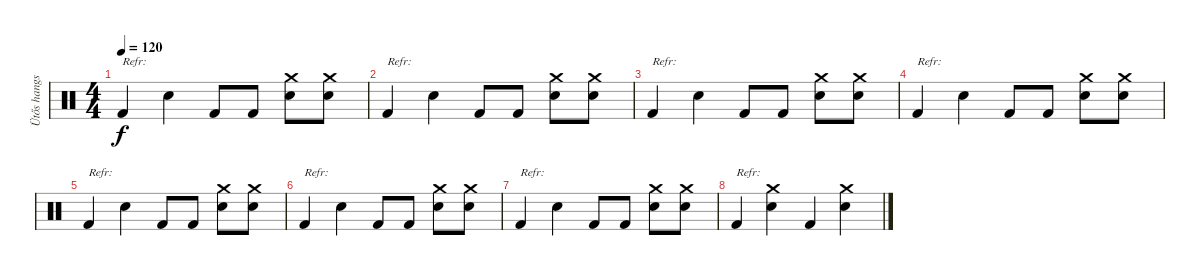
\track ("Ütős hangszer" "Ütős hangs") {instrument percussion}
\staff {score}
\articulation defaults
\ts (4 4)
\tempo 120
\clef neutral
\ks c "Kick (hit) 2".4{txt "Refr:" dy f} "Snare (hit) 2".4 "Kick (hit) 2".8 "Kick (hit) 2".8
("Crash medium (hit)" "Snare (hit) 2").8 ("Crash medium (hit)" "Snare (hit) 2").8 |
"Kick (hit) 2".4{txt "Refr:"} "Snare (hit) 2".4 "Kick (hit) 2".8 "Kick (hit) 2".8 ("Crash medium (hit)" "Snare (hit) 2").8 ("Crash medium (hit)" "Snare (hit) 2").8 |
"Kick (hit) 2".4{txt "Refr:"} "Snare (hit) 2".4 "Kick (hit) 2".8 "Kick (hit) 2".8 ("Crash medium (hit)" "Snare (hit) 2").8 ("Crash medium (hit)" "Snare (hit) 2").8 |
"Kick (hit) 2".4{txt "Refr:"} "Snare (hit) 2".4 "Kick (hit) 2".8 "Kick (hit) 2".8 ("Crash medium (hit)" "Snare (hit) 2").8 ("Crash medium (hit)" "Snare (hit) 2").8 |
"Kick (hit) 2".4{txt "Refr:"} "Snare (hit) 2".4 "Kick (hit) 2".8 "Kick (hit) 2".8 ("Crash medium (hit)" "Snare (hit) 2").8 ("Crash medium (hit)" "Snare (hit) 2").8 |
"Kick (hit) 2".4{txt "Refr:"} "Snare (hit) 2".4 "Kick (hit) 2".8 "Kick (hit) 2".8 ("Crash medium (hit)" "Snare (hit) 2").8 ("Crash medium (hit)" "Snare (hit) 2").8 |
"Kick (hit) 2".4{txt "Refr:"} "Snare (hit) 2".4 "Kick (hit) 2".8 "Kick (hit) 2".8 ("Crash medium (hit)" "Snare (hit) 2").8 ("Crash medium (hit)" "Snare (hit) 2").8 |
"Kick (hit) 2".4{txt "Refr:"} ("Crash medium (hit)" "Snare (hit) 2").4 "Kick (hit) 2".4 ("Crash medium (hit)" "Snare (hit) 2").4
